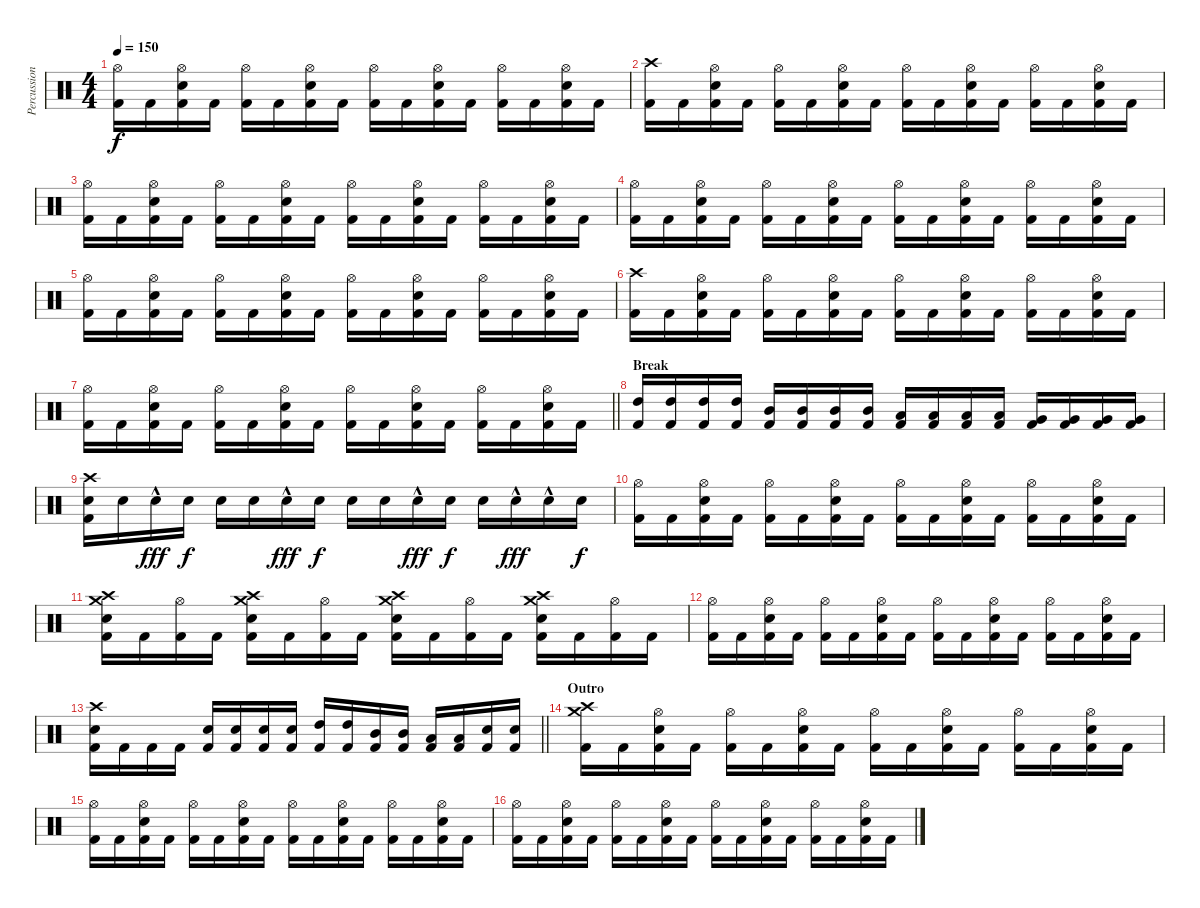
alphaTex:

\track ("Percussion" "Percussion") {instrument percussion}
\staff {score}
\articulation defaults
\ts (4 4)
\tempo 150
\clef neutral
\ks c
("Hi-Hat (open)" "Kick (hit) 2").16{dy f} "Kick (hit) 2".16 ("Hi-Hat (open)" "Snare (hit) 2" "Kick (hit) 2").16 "Kick (hit) 2".16 ("Hi-Hat (open)" "Kick (hit) 2").16 "Kick (hit) 2".16 ("Hi-Hat (open)" "Snare (hit) 2" "Kick (hit) 2").16 "Kick (hit) 2".16 ("Hi-Hat (open)" "Kick (hit) 2").16 "Kick (hit) 2".16 ("Hi-Hat (open)" "Snare (hit) 2" "Kick (hit) 2").16 "Kick (hit) 2".16 ("Hi-Hat (open)" "Kick (hit) 2").16 "Kick (hit) 2".16 ("Hi-Hat (open)" "Snare (hit) 2" "Kick (hit) 2").16 "Kick (hit) 2".16 |
("Crash high (hit)" "Kick (hit) 2").16 "Kick (hit) 2".16 ("Hi-Hat (open)" "Snare (hit) 2" "Kick (hit) 2").16 "Kick (hit) 2".16 ("Hi-Hat (open)" "Kick (hit) 2").16 "Kick (hit) 2".16 ("Hi-Hat (open)" "Snare (hit) 2" "Kick (hit) 2").16 "Kick (hit) 2".16 ("Hi-Hat (open)" "Kick (hit) 2").16 "Kick (hit) 2".16 ("Hi-Hat (open)" "Snare (hit) 2" "Kick (hit) 2").16 "Kick (hit) 2".16 ("Hi-Hat (open)" "Kick (hit) 2").16 "Kick (hit) 2".16 ("Hi-Hat (open)" "Snare (hit) 2" "Kick (hit) 2").16 "Kick (hit) 2".16 |
("Hi-Hat (open)" "Kick (hit) 2").16 "Kick (hit) 2".16 ("Hi-Hat (open)" "Snare (hit) 2" "Kick (hit) 2").16 "Kick (hit) 2".16 ("Hi-Hat (open)" "Kick (hit) 2").16 "Kick (hit) 2".16 ("Hi-Hat (open)" "Snare (hit) 2" "Kick (hit) 2").16 "Kick (hit) 2".16 ("Hi-Hat (open)" "Kick (hit) 2").16 "Kick (hit) 2".16 ("Hi-Hat (open)" "Snare (hit) 2" "Kick (hit) 2").16 "Kick (hit) 2".16 ("Hi-Hat (open)" "Kick (hit) 2").16 "Kick (hit) 2".16 ("Hi-Hat (open)" "Snare (hit) 2" "Kick (hit) 2").16 "Kick (hit) 2".16 |
("Hi-Hat (open)" "Kick (hit) 2").16 "Kick (hit) 2".16 ("Hi-Hat (open)" "Snare (hit) 2" "Kick (hit) 2").16 "Kick (hit) 2".16 ("Hi-Hat (open)" "Kick (hit) 2").16 "Kick (hit) 2".16 ("Hi-Hat (open)" "Snare (hit) 2" "Kick (hit) 2").16 "Kick (hit) 2".16 ("Hi-Hat (open)" "Kick (hit) 2").16 "Kick (hit) 2".16 ("Hi-Hat (open)" "Snare (hit) 2" "Kick (hit) 2").16 "Kick (hit) 2".16 ("Hi-Hat (open)" "Kick (hit) 2").16 "Kick (hit) 2".16 ("Hi-Hat (open)" "Snare (hit) 2" "Kick (hit) 2").16 "Kick (hit) 2".16 |
("Hi-Hat (open)" "Kick (hit) 2").16 "Kick (hit) 2".16 ("Hi-Hat (open)" "Snare (hit) 2" "Kick (hit) 2").16 "Kick (hit) 2".16 ("Hi-Hat (open)" "Kick (hit) 2").16 "Kick (hit) 2".16 ("Hi-Hat (open)" "Snare (hit) 2" "Kick (hit) 2").16 "Kick (hit) 2".16 ("Hi-Hat (open)" "Kick (hit) 2").16 "Kick (hit) 2".16 ("Hi-Hat (open)" "Snare (hit) 2" "Kick (hit) 2").16 "Kick (hit) 2".16 ("Hi-Hat (open)" "Kick (hit) 2").16 "Kick (hit) 2".16 ("Hi-Hat (open)" "Snare (hit) 2" "Kick (hit) 2").16 "Kick (hit) 2".16 |
("Crash high (hit)" "Kick (hit) 2").16 "Kick (hit) 2".16 ("Hi-Hat (open)" "Snare (hit) 2" "Kick (hit) 2").16 "Kick (hit) 2".16 ("Hi-Hat (open)" "Kick (hit) 2").16 "Kick (hit) 2".16 ("Hi-Hat (open)" "Snare (hit) 2" "Kick (hit) 2").16 "Kick (hit) 2".16 ("Hi-Hat (open)" "Kick (hit) 2").16 "Kick (hit) 2".16 ("Hi-Hat (open)" "Snare (hit) 2" "Kick (hit) 2").16 "Kick (hit) 2".16 ("Hi-Hat (open)" "Kick (hit) 2").16 "Kick (hit) 2".16 ("Hi-Hat (open)" "Snare (hit) 2" "Kick (hit) 2").16 "Kick (hit) 2".16 |
\barLineRight lightlight
("Hi-Hat (open)" "Kick (hit) 2").16 "Kick (hit) 2".16 ("Hi-Hat (open)" "Snare (hit) 2" "Kick (hit) 2").16 "Kick (hit) 2".16 ("Hi-Hat (open)" "Kick (hit) 2").16 "Kick (hit) 2".16 ("Hi-Hat (open)" "Snare (hit) 2" "Kick (hit) 2").16 "Kick (hit) 2".16 ("Hi-Hat (open)" "Kick (hit) 2").16 "Kick (hit) 2".16 ("Hi-Hat (open)" "Snare (hit) 2" "Kick (hit) 2").16 "Kick (hit) 2".16 ("Hi-Hat (open)" "Kick (hit) 2").16 "Kick (hit) 2".16 ("Hi-Hat (open)" "Snare (hit) 2" "Kick (hit) 2").16 "Kick (hit) 2".16 |
\section ("" "Break")
("High Tom (hit)" "Kick (hit) 2").16 ("High Tom (hit)" "Kick (hit) 2").16 ("High Tom (hit)" "Kick (hit) 2").16 ("High Tom (hit)" "Kick (hit) 2").16 ("Mid Tom (hit)" "Kick (hit) 2").16 ("Mid Tom (hit)" "Kick (hit) 2").16 ("Mid Tom (hit)" "Kick (hit) 2").16 ("Mid Tom (hit)" "Kick (hit) 2").16 ("Low Tom (hit)" "Kick (hit) 2").16 ("Low Tom (hit)" "Kick (hit) 2").16 ("Low Tom (hit)" "Kick (hit) 2").16 ("Low Tom (hit)" "Kick (hit) 2").16 ("Very Low Tom (hit)" "Kick (hit) 2").16 ("Very Low Tom (hit)" "Kick (hit) 2").16 ("Very Low Tom (hit)" "Kick (hit) 2").16 ("Very Low Tom (hit)" "Kick (hit) 2").16 |
("Crash high (hit)" "Snare (hit) 2" "Kick (hit) 2").16 "Snare (hit) 2".16 "Snare (hit) 2"{hac}.16{dy fff} "Snare (hit) 2".16{dy f} "Snare (hit) 2".16 "Snare (hit) 2".16 "Snare (hit) 2"{hac}.16{dy fff} "Snare (hit) 2".16{dy f} "Snare (hit) 2".16 "Snare (hit) 2".16 "Snare (hit) 2"{hac}.16{dy fff} "Snare (hit) 2".16{dy f} "Snare (hit) 2".16 "Snare (hit) 2"{hac}.16{dy fff} "Snare (hit) 2"{hac}.16 "Snare (hit) 2".16{dy f} |
("Hi-Hat (open)" "Kick (hit) 2").16 "Kick (hit) 2".16 ("Hi-Hat (open)" "Snare (hit) 2" "Kick (hit) 2").16 "Kick (hit) 2".16 ("Hi-Hat (open)" "Kick (hit) 2").16 "Kick (hit) 2".16 ("Hi-Hat (open)" "Snare (hit) 2" "Kick (hit) 2").16 "Kick (hit) 2".16 ("Hi-Hat (open)" "Kick (hit) 2").16 "Kick (hit) 2".16 ("Hi-Hat (open)" "Snare (hit) 2" "Kick (hit) 2").16 "Kick (hit) 2".16 ("Hi-Hat (open)" "Kick (hit) 2").16 "Kick (hit) 2".16 ("Hi-Hat (open)" "Snare (hit) 2" "Kick (hit) 2").16 "Kick (hit) 2".16 |
("Crash medium (hit)" "Crash high (hit)" "Snare (hit) 2" "Kick (hit) 2").16 "Kick (hit) 2".16 ("Hi-Hat (open)" "Kick (hit) 2").16 "Kick (hit) 2".16 ("Crash medium (hit)" "Crash high (hit)" "Snare (hit) 2" "Kick (hit) 2").16 "Kick (hit) 2".16 ("Hi-Hat (open)" "Kick (hit) 2").16 "Kick (hit) 2".16 ("Crash medium (hit)" "Crash high (hit)" "Snare (hit) 2" "Kick (hit) 2").16 "Kick (hit) 2".16 ("Hi-Hat (open)" "Kick (hit) 2").16 "Kick (hit) 2".16 ("Crash medium (hit)" "Crash high (hit)" "Snare (hit) 2" "Kick (hit) 2").16 "Kick (hit) 2".16 ("Hi-Hat (open)" "Kick (hit) 2").16 "Kick (hit) 2".16 |
("Hi-Hat (open)" "Kick (hit) 2").16 "Kick (hit) 2".16 ("Hi-Hat (open)" "Snare (hit) 2" "Kick (hit) 2").16 "Kick (hit) 2".16 ("Hi-Hat (open)" "Kick (hit) 2").16 "Kick (hit) 2".16 ("Hi-Hat (open)" "Snare (hit) 2" "Kick (hit) 2").16 "Kick (hit) 2".16 ("Hi-Hat (open)" "Kick (hit) 2").16 "Kick (hit) 2".16 ("Hi-Hat (open)" "Snare (hit) 2" "Kick (hit) 2").16 "Kick (hit) 2".16 ("Hi-Hat (open)" "Kick (hit) 2").16 "Kick (hit) 2".16 ("Hi-Hat (open)" "Snare (hit) 2" "Kick (hit) 2").16 "Kick (hit) 2".16 |
\barLineRight lightlight
("Crash high (hit)" "Snare (hit) 2" "Kick (hit) 2").16 "Kick (hit) 2".16 "Kick (hit) 2".16 "Kick (hit) 2".16 ("Snare (hit) 2" "Kick (hit) 2").16 ("Snare (hit) 2" "Kick (hit) 2").16 ("Snare (hit) 2" "Kick (hit) 2").16 ("Snare (hit) 2" "Kick (hit) 2").16 ("High Tom (hit)" "Kick (hit) 2").16 ("High Tom (hit)" "Kick (hit) 2").16 ("Mid Tom (hit)" "Kick (hit) 2").16 ("Mid Tom (hit)" "Kick (hit) 2").16 ("Low Tom (hit)" "Kick (hit) 2").16 ("Low Tom (hit)" "Kick (hit) 2").16 ("Snare (hit) 2" "Kick (hit) 2").16 ("Snare (hit) 2" "Kick (hit) 2").16 |
\section ("" "Outro")
("Crash medium (hit)" "Crash high (hit)" "Kick (hit) 2").16 "Kick (hit) 2".16 ("Hi-Hat (open)" "Snare (hit) 2" "Kick (hit) 2").16 "Kick (hit) 2".16 ("Hi-Hat (open)" "Kick (hit) 2").16 "Kick (hit) 2".16 ("Hi-Hat (open)" "Snare (hit) 2" "Kick (hit) 2").16 "Kick (hit) 2".16 ("Hi-Hat (open)" "Kick (hit) 2").16 "Kick (hit) 2".16 ("Hi-Hat (open)" "Snare (hit) 2" "Kick (hit) 2").16 "Kick (hit) 2".16 ("Hi-Hat (open)" "Kick (hit) 2").16 "Kick (hit) 2".16 ("Hi-Hat (open)" "Snare (hit) 2" "Kick (hit) 2").16 "Kick (hit) 2".16 |
("Hi-Hat (open)" "Kick (hit) 2").16 "Kick (hit) 2".16 ("Hi-Hat (open)" "Snare (hit) 2" "Kick (hit) 2").16 "Kick (hit) 2".16 ("Hi-Hat (open)" "Kick (hit) 2").16 "Kick (hit) 2".16 ("Hi-Hat (open)" "Snare (hit) 2" "Kick (hit) 2").16 "Kick (hit) 2".16 ("Hi-Hat (open)" "Kick (hit) 2").16 "Kick (hit) 2".16 ("Hi-Hat (open)" "Snare (hit) 2" "Kick (hit) 2").16 "Kick (hit) 2".16 ("Hi-Hat (open)" "Kick (hit) 2").16 "Kick (hit) 2".16 ("Hi-Hat (open)" "Snare (hit) 2" "Kick (hit) 2").16 "Kick (hit) 2".16 |
("Hi-Hat (open)" "Kick (hit) 2").16 "Kick (hit) 2".16 ("Hi-Hat (open)" "Snare (hit) 2" "Kick (hit) 2").16 "Kick (hit) 2".16 ("Hi-Hat (open)" "Kick (hit) 2").16 "Kick (hit) 2".16 ("Hi-Hat (open)" "Snare (hit) 2" "Kick (hit) 2").16 "Kick (hit) 2".16 ("Hi-Hat (open)" "Kick (hit) 2").16 "Kick (hit) 2".16 ("Hi-Hat (open)" "Snare (hit) 2" "Kick (hit) 2").16 "Kick (hit) 2".16 ("Hi-Hat (open)" "Kick (hit) 2").16 "Kick (hit) 2".16 ("Hi-Hat (open)" "Snare (hit) 2" "Kick (hit) 2").16 "Kick (hit) 2".16
